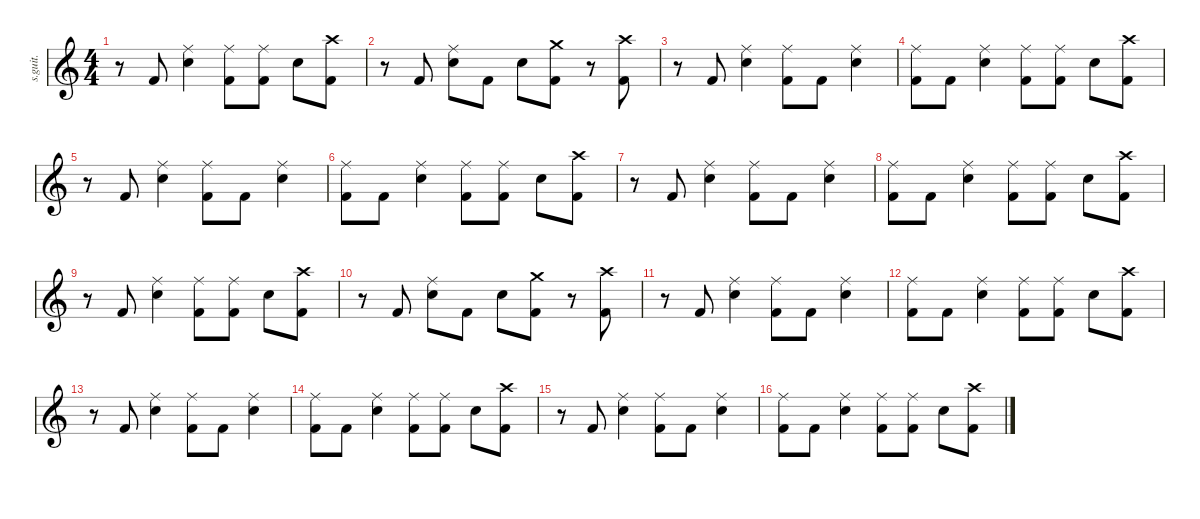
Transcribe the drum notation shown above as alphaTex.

\defaultSystemsLayout 4
\hideDynamics
\bracketExtendMode nobrackets
\track ("Nick Menza (Drums)" "s.guit.") {instrument percussion}
\staff {score}
\articulation defaults
\ts (4 4)
\tempo (196 hide)
\clef g2
\ks c
r.8{dy f} "Kick (hit) 2".8{lyrics (0 "") lyrics (1 "") lyrics (2 "") lyrics (3 "") lyrics (4 "")} ("Ride (middle)" "Snare (hit) 2").4{lyrics (0 "") lyrics (1 "") lyrics (2 "") lyrics (3 "") lyrics (4 "")} ("Ride (middle)" "Kick (hit) 2").8{lyrics (0 "") lyrics (1 "") lyrics (2 "") lyrics (3 "") lyrics (4 "")} ("Ride (middle)" "Kick (hit) 2").8{lyrics (0 "") lyrics (1 "") lyrics (2 "") lyrics (3 "") lyrics (4 "")} "Snare (hit) 2".8{lyrics (0 "") lyrics (1 "") lyrics (2 "") lyrics (3 "") lyrics (4 "")} ("Crash high (hit)" "Kick (hit) 2").8{lyrics (0 "") lyrics (1 "") lyrics (2 "") lyrics (3 "") lyrics (4 "")} |
r.8 "Kick (hit) 2".8{lyrics (0 "") lyrics (1 "") lyrics (2 "") lyrics (3 "") lyrics (4 "")} ("Ride (middle)" "Snare (hit) 2").8{lyrics (0 "") lyrics (1 "") lyrics (2 "") lyrics (3 "") lyrics (4 "")} "Kick (hit) 2".8{lyrics (0 "") lyrics (1 "") lyrics (2 "") lyrics (3 "") lyrics (4 "")} "Snare (hit) 2".8{lyrics (0 "") lyrics (1 "") lyrics (2 "") lyrics (3 "") lyrics (4 "")} ("Crash medium (hit)" "Kick (hit) 2").8{lyrics (0 "") lyrics (1 "") lyrics (2 "") lyrics (3 "") lyrics (4 "")} r.8 ("Crash high (hit)" "Kick (hit) 2").8{lyrics (0 "") lyrics (1 "") lyrics (2 "") lyrics (3 "") lyrics (4 "")} |
r.8 "Kick (hit) 2".8{lyrics (0 "") lyrics (1 "") lyrics (2 "") lyrics (3 "") lyrics (4 "")} ("Ride (middle)" "Snare (hit) 2").4{lyrics (0 "") lyrics (1 "") lyrics (2 "") lyrics (3 "") lyrics (4 "")} ("Ride (middle)" "Kick (hit) 2").8{lyrics (0 "") lyrics (1 "") lyrics (2 "") lyrics (3 "") lyrics (4 "")} "Kick (hit) 2".8{lyrics (0 "") lyrics (1 "") lyrics (2 "") lyrics (3 "") lyrics (4 "")} ("Ride (middle)" "Snare (hit) 2").4{lyrics (0 "") lyrics (1 "") lyrics (2 "") lyrics (3 "") lyrics (4 "")} |
("Ride (middle)" "Kick (hit) 2").8{lyrics (0 "") lyrics (1 "") lyrics (2 "") lyrics (3 "") lyrics (4 "")} "Kick (hit) 2".8{lyrics (0 "") lyrics (1 "") lyrics (2 "") lyrics (3 "") lyrics (4 "")} ("Ride (middle)" "Snare (hit) 2").4{lyrics (0 "") lyrics (1 "") lyrics (2 "") lyrics (3 "") lyrics (4 "")} ("Ride (middle)" "Kick (hit) 2").8{lyrics (0 "") lyrics (1 "") lyrics (2 "") lyrics (3 "") lyrics (4 "")} ("Ride (middle)" "Kick (hit) 2").8{lyrics (0 "") lyrics (1 "") lyrics (2 "") lyrics (3 "") lyrics (4 "")} "Snare (hit) 2".8{lyrics (0 "") lyrics (1 "") lyrics (2 "") lyrics (3 "") lyrics (4 "")} ("Crash high (hit)" "Kick (hit) 2").8{lyrics (0 "") lyrics (1 "") lyrics (2 "") lyrics (3 "") lyrics (4 "")} |
r.8 "Kick (hit) 2".8{lyrics (0 "") lyrics (1 "") lyrics (2 "") lyrics (3 "") lyrics (4 "")} ("Ride (middle)" "Snare (hit) 2").4{lyrics (0 "") lyrics (1 "") lyrics (2 "") lyrics (3 "") lyrics (4 "")} ("Ride (middle)" "Kick (hit) 2").8{lyrics (0 "") lyrics (1 "") lyrics (2 "") lyrics (3 "") lyrics (4 "")} "Kick (hit) 2".8{lyrics (0 "") lyrics (1 "") lyrics (2 "") lyrics (3 "") lyrics (4 "")} ("Ride (middle)" "Snare (hit) 2").4{lyrics (0 "") lyrics (1 "") lyrics (2 "") lyrics (3 "") lyrics (4 "")} |
("Ride (middle)" "Kick (hit) 2").8{lyrics (0 "") lyrics (1 "") lyrics (2 "") lyrics (3 "") lyrics (4 "")} "Kick (hit) 2".8{lyrics (0 "") lyrics (1 "") lyrics (2 "") lyrics (3 "") lyrics (4 "")} ("Ride (middle)" "Snare (hit) 2").4{lyrics (0 "") lyrics (1 "") lyrics (2 "") lyrics (3 "") lyrics (4 "")} ("Ride (middle)" "Kick (hit) 2").8{lyrics (0 "") lyrics (1 "") lyrics (2 "") lyrics (3 "") lyrics (4 "")} ("Ride (middle)" "Kick (hit) 2").8{lyrics (0 "") lyrics (1 "") lyrics (2 "") lyrics (3 "") lyrics (4 "")} "Snare (hit) 2".8{lyrics (0 "") lyrics (1 "") lyrics (2 "") lyrics (3 "") lyrics (4 "")} ("Crash high (hit)" "Kick (hit) 2").8{lyrics (0 "") lyrics (1 "") lyrics (2 "") lyrics (3 "") lyrics (4 "")} |
r.8 "Kick (hit) 2".8{lyrics (0 "") lyrics (1 "") lyrics (2 "") lyrics (3 "") lyrics (4 "")} ("Ride (middle)" "Snare (hit) 2").4{lyrics (0 "") lyrics (1 "") lyrics (2 "") lyrics (3 "") lyrics (4 "")} ("Ride (middle)" "Kick (hit) 2").8{lyrics (0 "") lyrics (1 "") lyrics (2 "") lyrics (3 "") lyrics (4 "")} "Kick (hit) 2".8{lyrics (0 "") lyrics (1 "") lyrics (2 "") lyrics (3 "") lyrics (4 "")} ("Ride (middle)" "Snare (hit) 2").4{lyrics (0 "") lyrics (1 "") lyrics (2 "") lyrics (3 "") lyrics (4 "")} |
("Ride (middle)" "Kick (hit) 2").8{lyrics (0 "") lyrics (1 "") lyrics (2 "") lyrics (3 "") lyrics (4 "")} "Kick (hit) 2".8{lyrics (0 "") lyrics (1 "") lyrics (2 "") lyrics (3 "") lyrics (4 "")} ("Ride (middle)" "Snare (hit) 2").4{lyrics (0 "") lyrics (1 "") lyrics (2 "") lyrics (3 "") lyrics (4 "")} ("Ride (middle)" "Kick (hit) 2").8{lyrics (0 "") lyrics (1 "") lyrics (2 "") lyrics (3 "") lyrics (4 "")} ("Ride (middle)" "Kick (hit) 2").8{lyrics (0 "") lyrics (1 "") lyrics (2 "") lyrics (3 "") lyrics (4 "")} "Snare (hit) 2".8{lyrics (0 "") lyrics (1 "") lyrics (2 "") lyrics (3 "") lyrics (4 "")} ("Crash high (hit)" "Kick (hit) 2").8{lyrics (0 "") lyrics (1 "") lyrics (2 "") lyrics (3 "") lyrics (4 "")} |
r.8 "Kick (hit) 2".8{lyrics (0 "") lyrics (1 "") lyrics (2 "") lyrics (3 "") lyrics (4 "")} ("Ride (middle)" "Snare (hit) 2").4{lyrics (0 "") lyrics (1 "") lyrics (2 "") lyrics (3 "") lyrics (4 "")} ("Ride (middle)" "Kick (hit) 2").8{lyrics (0 "") lyrics (1 "") lyrics (2 "") lyrics (3 "") lyrics (4 "")} ("Ride (middle)" "Kick (hit) 2").8{lyrics (0 "") lyrics (1 "") lyrics (2 "") lyrics (3 "") lyrics (4 "")} "Snare (hit) 2".8{lyrics (0 "") lyrics (1 "") lyrics (2 "") lyrics (3 "") lyrics (4 "")} ("Crash high (hit)" "Kick (hit) 2").8{lyrics (0 "") lyrics (1 "") lyrics (2 "") lyrics (3 "") lyrics (4 "")} |
r.8 "Kick (hit) 2".8{lyrics (0 "") lyrics (1 "") lyrics (2 "") lyrics (3 "") lyrics (4 "")} ("Ride (middle)" "Snare (hit) 2").8{lyrics (0 "") lyrics (1 "") lyrics (2 "") lyrics (3 "") lyrics (4 "")} "Kick (hit) 2".8{lyrics (0 "") lyrics (1 "") lyrics (2 "") lyrics (3 "") lyrics (4 "")} "Snare (hit) 2".8{lyrics (0 "") lyrics (1 "") lyrics (2 "") lyrics (3 "") lyrics (4 "")} ("Crash medium (hit)" "Kick (hit) 2").8{lyrics (0 "") lyrics (1 "") lyrics (2 "") lyrics (3 "") lyrics (4 "")} r.8 ("Crash high (hit)" "Kick (hit) 2").8{lyrics (0 "") lyrics (1 "") lyrics (2 "") lyrics (3 "") lyrics (4 "")} |
r.8 "Kick (hit) 2".8{lyrics (0 "") lyrics (1 "") lyrics (2 "") lyrics (3 "") lyrics (4 "")} ("Ride (middle)" "Snare (hit) 2").4{lyrics (0 "") lyrics (1 "") lyrics (2 "") lyrics (3 "") lyrics (4 "")} ("Ride (middle)" "Kick (hit) 2").8{lyrics (0 "") lyrics (1 "") lyrics (2 "") lyrics (3 "") lyrics (4 "")} "Kick (hit) 2".8{lyrics (0 "") lyrics (1 "") lyrics (2 "") lyrics (3 "") lyrics (4 "")} ("Ride (middle)" "Snare (hit) 2").4{lyrics (0 "") lyrics (1 "") lyrics (2 "") lyrics (3 "") lyrics (4 "")} |
("Ride (middle)" "Kick (hit) 2").8{lyrics (0 "") lyrics (1 "") lyrics (2 "") lyrics (3 "") lyrics (4 "")} "Kick (hit) 2".8{lyrics (0 "") lyrics (1 "") lyrics (2 "") lyrics (3 "") lyrics (4 "")} ("Ride (middle)" "Snare (hit) 2").4{lyrics (0 "") lyrics (1 "") lyrics (2 "") lyrics (3 "") lyrics (4 "")} ("Ride (middle)" "Kick (hit) 2").8{lyrics (0 "") lyrics (1 "") lyrics (2 "") lyrics (3 "") lyrics (4 "")} ("Ride (middle)" "Kick (hit) 2").8{lyrics (0 "") lyrics (1 "") lyrics (2 "") lyrics (3 "") lyrics (4 "")} "Snare (hit) 2".8{lyrics (0 "") lyrics (1 "") lyrics (2 "") lyrics (3 "") lyrics (4 "")} ("Crash high (hit)" "Kick (hit) 2").8{lyrics (0 "") lyrics (1 "") lyrics (2 "") lyrics (3 "") lyrics (4 "")} |
r.8 "Kick (hit) 2".8{lyrics (0 "") lyrics (1 "") lyrics (2 "") lyrics (3 "") lyrics (4 "")} ("Ride (middle)" "Snare (hit) 2").4{lyrics (0 "") lyrics (1 "") lyrics (2 "") lyrics (3 "") lyrics (4 "")} ("Ride (middle)" "Kick (hit) 2").8{lyrics (0 "") lyrics (1 "") lyrics (2 "") lyrics (3 "") lyrics (4 "")} "Kick (hit) 2".8{lyrics (0 "") lyrics (1 "") lyrics (2 "") lyrics (3 "") lyrics (4 "")} ("Ride (middle)" "Snare (hit) 2").4{lyrics (0 "") lyrics (1 "") lyrics (2 "") lyrics (3 "") lyrics (4 "")} |
("Ride (middle)" "Kick (hit) 2").8{lyrics (0 "") lyrics (1 "") lyrics (2 "") lyrics (3 "") lyrics (4 "")} "Kick (hit) 2".8{lyrics (0 "") lyrics (1 "") lyrics (2 "") lyrics (3 "") lyrics (4 "")} ("Ride (middle)" "Snare (hit) 2").4{lyrics (0 "") lyrics (1 "") lyrics (2 "") lyrics (3 "") lyrics (4 "")} ("Ride (middle)" "Kick (hit) 2").8{lyrics (0 "") lyrics (1 "") lyrics (2 "") lyrics (3 "") lyrics (4 "")} ("Ride (middle)" "Kick (hit) 2").8{lyrics (0 "") lyrics (1 "") lyrics (2 "") lyrics (3 "") lyrics (4 "")} "Snare (hit) 2".8{lyrics (0 "") lyrics (1 "") lyrics (2 "") lyrics (3 "") lyrics (4 "")} ("Crash high (hit)" "Kick (hit) 2").8{lyrics (0 "") lyrics (1 "") lyrics (2 "") lyrics (3 "") lyrics (4 "")} |
r.8 "Kick (hit) 2".8{lyrics (0 "") lyrics (1 "") lyrics (2 "") lyrics (3 "") lyrics (4 "")} ("Ride (middle)" "Snare (hit) 2").4{lyrics (0 "") lyrics (1 "") lyrics (2 "") lyrics (3 "") lyrics (4 "")} ("Ride (middle)" "Kick (hit) 2").8{lyrics (0 "") lyrics (1 "") lyrics (2 "") lyrics (3 "") lyrics (4 "")} "Kick (hit) 2".8{lyrics (0 "") lyrics (1 "") lyrics (2 "") lyrics (3 "") lyrics (4 "")} ("Ride (middle)" "Snare (hit) 2").4{lyrics (0 "") lyrics (1 "") lyrics (2 "") lyrics (3 "") lyrics (4 "")} |
("Ride (middle)" "Kick (hit) 2").8{lyrics (0 "") lyrics (1 "") lyrics (2 "") lyrics (3 "") lyrics (4 "")} "Kick (hit) 2".8{lyrics (0 "") lyrics (1 "") lyrics (2 "") lyrics (3 "") lyrics (4 "")} ("Ride (middle)" "Snare (hit) 2").4{lyrics (0 "") lyrics (1 "") lyrics (2 "") lyrics (3 "") lyrics (4 "")} ("Ride (middle)" "Kick (hit) 2").8{lyrics (0 "") lyrics (1 "") lyrics (2 "") lyrics (3 "") lyrics (4 "")} ("Ride (middle)" "Kick (hit) 2").8{lyrics (0 "") lyrics (1 "") lyrics (2 "") lyrics (3 "") lyrics (4 "")} "Snare (hit) 2".8{lyrics (0 "") lyrics (1 "") lyrics (2 "") lyrics (3 "") lyrics (4 "")} ("Crash high (hit)" "Kick (hit) 2").8{lyrics (0 "") lyrics (1 "") lyrics (2 "") lyrics (3 "") lyrics (4 "")}
